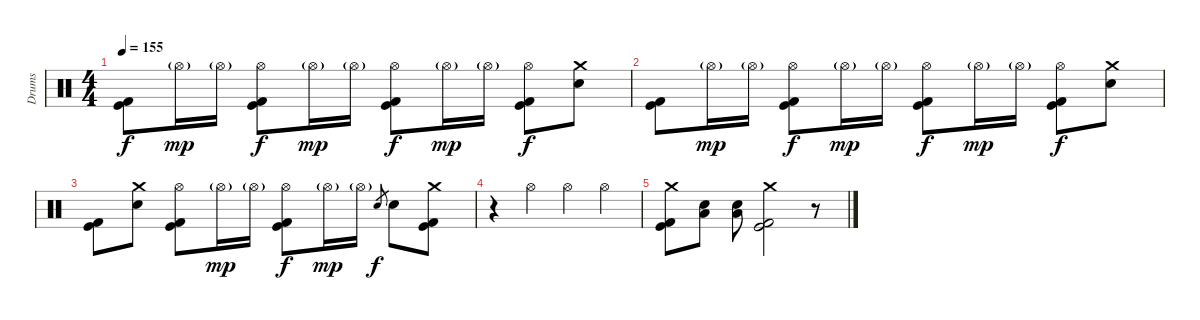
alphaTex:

\track ("Drums" "Drums") {instrument percussion}
\staff {score}
\articulation defaults
\ts (4 4)
\tempo 155
\clef neutral
\ks c
("Kick (hit) 2" "Kick (hit)").8{dy f} "Hi-Hat (open)"{g}.16{dy mp} "Hi-Hat (open)"{g}.16 ("Hi-Hat (open)" "Kick (hit) 2" "Kick (hit)").8{dy f} "Hi-Hat (open)"{g}.16{dy mp} "Hi-Hat (open)"{g}.16 ("Hi-Hat (open)" "Kick (hit) 2" "Kick (hit)").8{dy f} "Hi-Hat (open)"{g}.16{dy mp} "Hi-Hat (open)"{g}.16 ("Hi-Hat (open)" "Kick (hit) 2" "Kick (hit)").8{dy f} ("Electric Snare (hit)" "Crash medium (hit)").8 |
("Kick (hit) 2" "Kick (hit)").8 "Hi-Hat (open)"{g}.16{dy mp} "Hi-Hat (open)"{g}.16 ("Hi-Hat (open)" "Kick (hit) 2" "Kick (hit)").8{dy f} "Hi-Hat (open)"{g}.16{dy mp} "Hi-Hat (open)"{g}.16 ("Hi-Hat (open)" "Kick (hit) 2" "Kick (hit)").8{dy f} "Hi-Hat (open)"{g}.16{dy mp} "Hi-Hat (open)"{g}.16 ("Hi-Hat (open)" "Kick (hit) 2" "Kick (hit)").8{dy f} ("Electric Snare (hit)" "Crash medium (hit)").8 |
("Kick (hit)" "Kick (hit) 2").8 ("Electric Snare (hit)" "Crash medium (hit)").8 ("Hi-Hat (open)" "Kick (hit) 2" "Kick (hit)").8 "Hi-Hat (open)"{g}.16{dy mp} "Hi-Hat (open)"{g}.16 ("Hi-Hat (open)" "Kick (hit) 2" "Kick (hit)").8{dy f} "Hi-Hat (open)"{g}.16{dy mp} "Hi-Hat (open)"{g}.16 "Electric Snare (hit)".8{gr dy f} "Electric Snare (hit)".8 ("Kick (hit) 2" "Crash medium (hit)" "Kick (hit)").8 |
r.4 "Hi-Hat (open)".4 "Hi-Hat (open)".4 "Hi-Hat (open)".4 |
("Crash medium (hit)" "Kick (hit) 2" "Kick (hit)").8 ("Electric Snare (hit)" "Low Floor Tom (hit)").8 ("Electric Snare (hit)" "Low Floor Tom (hit)").8 ("Crash medium (hit)" "Kick (hit)" "Kick (hit) 2").2 r.8
